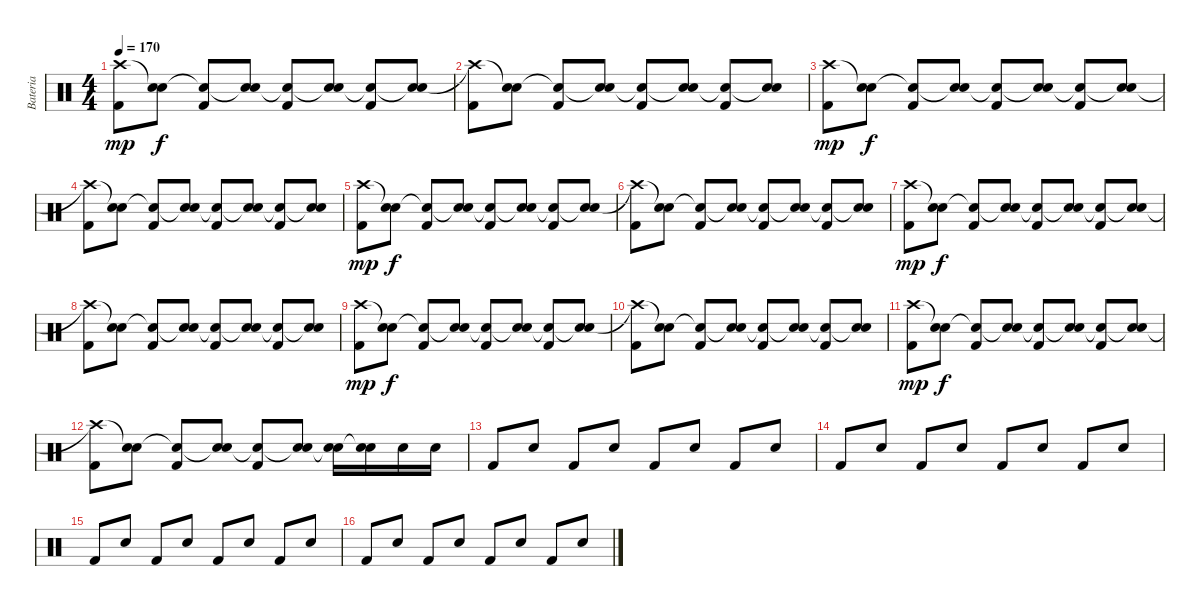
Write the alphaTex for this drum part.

\track ("Bateria" "Bateria") {instrument percussion}
\staff {score}
\articulation defaults
\ts (4 4)
\tempo 170
\clef neutral
\ks c
("Kick (hit) 2" "Crash high (hit)").8{dy mp} ("Electric Snare (hit)" "Snare (hit)"{t}).8{dy f} ("Kick (hit) 2" "Snare (hit)"{t}).8 ("Electric Snare (hit)" "Snare (hit)"{t}).8 ("Kick (hit) 2" "Snare (hit)"{t}).8 ("Electric Snare (hit)" "Snare (hit)"{t}).8 ("Kick (hit) 2" "Snare (hit)"{t}).8 ("Electric Snare (hit)" "Snare (hit)"{t}).8 |
("Kick (hit) 2" "Crash high (hit)"{t}).8 ("Electric Snare (hit)" "Snare (hit)"{t}).8 ("Kick (hit) 2" "Snare (hit)"{t}).8 ("Electric Snare (hit)" "Snare (hit)"{t}).8 ("Kick (hit) 2" "Snare (hit)"{t}).8 ("Electric Snare (hit)" "Snare (hit)"{t}).8 ("Kick (hit) 2" "Snare (hit)"{t}).8 ("Electric Snare (hit)" "Snare (hit)"{t}).8 |
("Kick (hit) 2" "Crash high (hit)").8{dy mp} ("Electric Snare (hit)" "Snare (hit)"{t}).8{dy f} ("Kick (hit) 2" "Snare (hit)"{t}).8 ("Electric Snare (hit)" "Snare (hit)"{t}).8 ("Kick (hit) 2" "Snare (hit)"{t}).8 ("Electric Snare (hit)" "Snare (hit)"{t}).8 ("Kick (hit) 2" "Snare (hit)"{t}).8 ("Electric Snare (hit)" "Snare (hit)"{t}).8 |
("Kick (hit) 2" "Crash high (hit)"{t}).8 ("Electric Snare (hit)" "Snare (hit)"{t}).8 ("Kick (hit) 2" "Snare (hit)"{t}).8 ("Electric Snare (hit)" "Snare (hit)"{t}).8 ("Kick (hit) 2" "Snare (hit)"{t}).8 ("Electric Snare (hit)" "Snare (hit)"{t}).8 ("Kick (hit) 2" "Snare (hit)"{t}).8 ("Electric Snare (hit)" "Snare (hit)"{t}).8 |
("Kick (hit) 2" "Crash high (hit)").8{dy mp} ("Electric Snare (hit)" "Snare (hit)"{t}).8{dy f} ("Kick (hit) 2" "Snare (hit)"{t}).8 ("Electric Snare (hit)" "Snare (hit)"{t}).8 ("Kick (hit) 2" "Snare (hit)"{t}).8 ("Electric Snare (hit)" "Snare (hit)"{t}).8 ("Kick (hit) 2" "Snare (hit)"{t}).8 ("Electric Snare (hit)" "Snare (hit)"{t}).8 |
("Kick (hit) 2" "Crash high (hit)"{t}).8 ("Electric Snare (hit)" "Snare (hit)"{t}).8 ("Kick (hit) 2" "Snare (hit)"{t}).8 ("Electric Snare (hit)" "Snare (hit)"{t}).8 ("Kick (hit) 2" "Snare (hit)"{t}).8 ("Electric Snare (hit)" "Snare (hit)"{t}).8 ("Kick (hit) 2" "Snare (hit)"{t}).8 ("Electric Snare (hit)" "Snare (hit)"{t}).8 |
("Kick (hit) 2" "Crash high (hit)").8{dy mp} ("Electric Snare (hit)" "Snare (hit)"{t}).8{dy f} ("Kick (hit) 2" "Snare (hit)"{t}).8 ("Electric Snare (hit)" "Snare (hit)"{t}).8 ("Kick (hit) 2" "Snare (hit)"{t}).8 ("Electric Snare (hit)" "Snare (hit)"{t}).8 ("Kick (hit) 2" "Snare (hit)"{t}).8 ("Electric Snare (hit)" "Snare (hit)"{t}).8 |
("Kick (hit) 2" "Crash high (hit)"{t}).8 ("Electric Snare (hit)" "Snare (hit)"{t}).8 ("Kick (hit) 2" "Snare (hit)"{t}).8 ("Electric Snare (hit)" "Snare (hit)"{t}).8 ("Kick (hit) 2" "Snare (hit)"{t}).8 ("Electric Snare (hit)" "Snare (hit)"{t}).8 ("Kick (hit) 2" "Snare (hit)"{t}).8 ("Electric Snare (hit)" "Snare (hit)"{t}).8 |
("Kick (hit) 2" "Crash high (hit)").8{dy mp} ("Electric Snare (hit)" "Snare (hit)"{t}).8{dy f} ("Kick (hit) 2" "Snare (hit)"{t}).8 ("Electric Snare (hit)" "Snare (hit)"{t}).8 ("Kick (hit) 2" "Snare (hit)"{t}).8 ("Electric Snare (hit)" "Snare (hit)"{t}).8 ("Kick (hit) 2" "Snare (hit)"{t}).8 ("Electric Snare (hit)" "Snare (hit)"{t}).8 |
("Kick (hit) 2" "Crash high (hit)"{t}).8 ("Electric Snare (hit)" "Snare (hit)"{t}).8 ("Kick (hit) 2" "Snare (hit)"{t}).8 ("Electric Snare (hit)" "Snare (hit)"{t}).8 ("Kick (hit) 2" "Snare (hit)"{t}).8 ("Electric Snare (hit)" "Snare (hit)"{t}).8 ("Kick (hit) 2" "Snare (hit)"{t}).8 ("Electric Snare (hit)" "Snare (hit)"{t}).8 |
("Kick (hit) 2" "Crash high (hit)").8{dy mp} ("Electric Snare (hit)" "Snare (hit)"{t}).8{dy f} ("Kick (hit) 2" "Snare (hit)"{t}).8 ("Electric Snare (hit)" "Snare (hit)"{t}).8 ("Kick (hit) 2" "Snare (hit)"{t}).8 ("Electric Snare (hit)" "Snare (hit)"{t}).8 ("Kick (hit) 2" "Snare (hit)"{t}).8 ("Electric Snare (hit)" "Snare (hit)"{t}).8 |
("Kick (hit) 2" "Crash high (hit)"{t}).8 ("Electric Snare (hit)" "Snare (hit)"{t}).8 ("Kick (hit) 2" "Snare (hit)"{t}).8 ("Electric Snare (hit)" "Snare (hit)"{t}).8 ("Kick (hit) 2" "Snare (hit)"{t}).8 ("Electric Snare (hit)" "Snare (hit)"{t}).8 ("Electric Snare (hit)" "Snare (hit)"{t}).16 ("Electric Snare (hit)" "Snare (hit)"{t}).16 "Electric Snare (hit)".16 "Electric Snare (hit)".16 |
"Kick (hit) 2".8 "Electric Snare (hit)".8 "Kick (hit) 2".8 "Electric Snare (hit)".8 "Kick (hit) 2".8 "Electric Snare (hit)".8 "Kick (hit) 2".8 "Electric Snare (hit)".8 |
"Kick (hit) 2".8 "Electric Snare (hit)".8 "Kick (hit) 2".8 "Electric Snare (hit)".8 "Kick (hit) 2".8 "Electric Snare (hit)".8 "Kick (hit) 2".8 "Electric Snare (hit)".8 |
"Kick (hit) 2".8 "Electric Snare (hit)".8 "Kick (hit) 2".8 "Electric Snare (hit)".8 "Kick (hit) 2".8 "Electric Snare (hit)".8 "Kick (hit) 2".8 "Electric Snare (hit)".8 |
"Kick (hit) 2".8 "Electric Snare (hit)".8 "Kick (hit) 2".8 "Electric Snare (hit)".8 "Kick (hit) 2".8 "Electric Snare (hit)".8 "Kick (hit) 2".8 "Electric Snare (hit)".8
